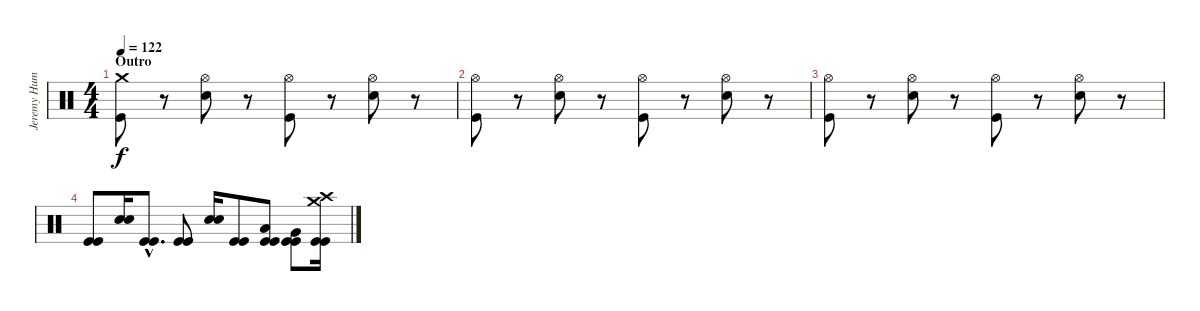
\track ("Jeremy Hummel Drums]" "Jeremy Hum") {instrument percussion}
\staff {score}
\articulation defaults
\ts (4 4)
\section ("" "Outro")
\tempo 122
\clef neutral
\ks c
("Crash medium (hit)" "Kick (hit)").8{dy f} r.8 ("Hi-Hat (open)" "Electric Snare (hit)").8 r.8 ("Hi-Hat (open)" "Kick (hit)").8 r.8 ("Hi-Hat (open)" "Electric Snare (hit)").8 r.8 |
("Hi-Hat (open)" "Kick (hit)").8 r.8 ("Hi-Hat (open)" "Electric Snare (hit)").8 r.8 ("Hi-Hat (open)" "Kick (hit)").8 r.8 ("Hi-Hat (open)" "Electric Snare (hit)").8 r.8 |
("Hi-Hat (open)" "Kick (hit)").8 r.8 ("Hi-Hat (open)" "Electric Snare (hit)").8 r.8 ("Hi-Hat (open)" "Kick (hit)").8 r.8 ("Hi-Hat (open)" "Electric Snare (hit)").8 r.8 |
("Kick (hit)" "Kick (hit)").8 ("Electric Snare (hit)" "Electric Snare (hit)").16 ("Kick (hit)"{hac} "Kick (hit)"{hac}).8{d} ("Kick (hit)" "Kick (hit)").8 ("Electric Snare (hit)" "Electric Snare (hit)").16 ("Kick (hit)" "Kick (hit)").8 ("Low Tom (hit)" "Kick (hit)" "Kick (hit)").8 ("Very Low Tom (hit)" "Kick (hit)" "Kick (hit)").8 ("Crash medium (hit)" "Crash high (hit)" "Kick (hit)" "Kick (hit)").16
